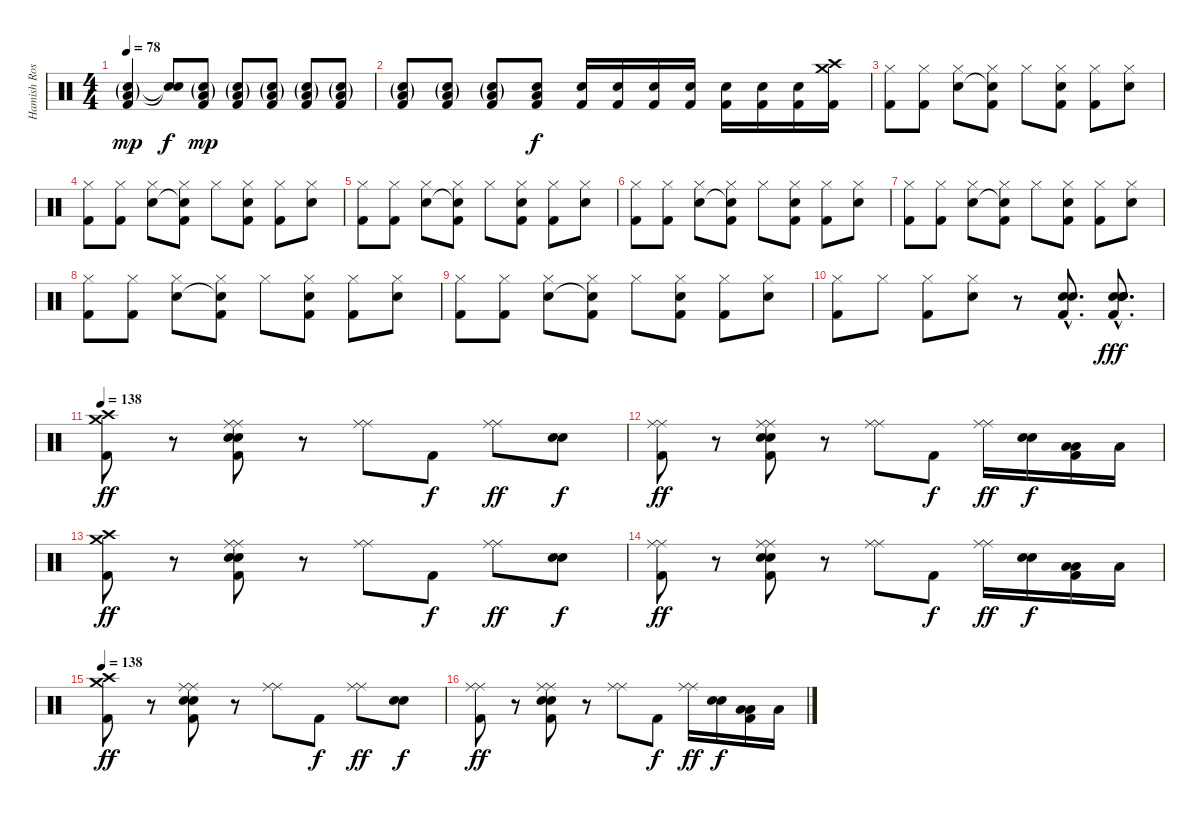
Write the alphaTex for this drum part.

\track ("Hamish Rosser" "Hamish Ros") {instrument percussion}
\staff {score}
\articulation defaults
\ts (4 4)
\tempo 78
\clef neutral
\ks c
("Low Tom (hit)"{g} "Snare (hit) 2"{g} "Kick (hit) 2").4{dy mp volume 14} ("Snare (hit)"{t} "Snare (hit)"{t}).8{dy f volume 12} ("Low Tom (hit)"{g} "Snare (hit) 2"{g} "Kick (hit) 2").8{dy mp volume 12} ("Low Tom (hit)"{g} "Snare (hit) 2"{g} "Kick (hit) 2").8{volume 13} ("Low Tom (hit)"{g} "Snare (hit) 2"{g} "Kick (hit) 2").8{volume 14} ("Low Tom (hit)"{g} "Snare (hit) 2"{g} "Kick (hit) 2").8{volume 15} ("Low Tom (hit)"{g} "Snare (hit) 2"{g} "Kick (hit) 2").8{volume 16} |
("Low Tom (hit)"{g} "Snare (hit) 2"{g} "Kick (hit) 2").8 ("Low Tom (hit)"{g} "Snare (hit) 2"{g} "Kick (hit) 2").8 ("Low Tom (hit)"{g} "Snare (hit) 2"{g} "Kick (hit) 2").8 ("Low Tom (hit)" "Snare (hit) 2" "Kick (hit) 2").8{dy f} ("Snare (hit) 2" "Kick (hit) 2").16 ("Snare (hit) 2" "Kick (hit) 2").16 ("Snare (hit) 2" "Kick (hit) 2").16 ("Snare (hit) 2" "Kick (hit) 2").16 ("Snare (hit) 2" "Kick (hit) 2").16 ("Snare (hit) 2" "Kick (hit) 2").16 ("Snare (hit) 2" "Kick (hit) 2").16 ("Crash medium (hit)" "Crash high (hit)" "Kick (hit) 2").16 |
("Hi-Hat (closed)" "Kick (hit) 2").8 ("Hi-Hat (closed)" "Kick (hit) 2").8 ("Hi-Hat (closed)" "Snare (hit) 2").8 ("Hi-Hat (closed)" "Snare (hit)"{t} "Kick (hit) 2").8 "Hi-Hat (closed)".8 ("Hi-Hat (closed)" "Snare (hit) 2" "Kick (hit) 2").8 ("Hi-Hat (closed)" "Kick (hit) 2").8 ("Hi-Hat (closed)" "Snare (hit) 2").8 |
("Hi-Hat (closed)" "Kick (hit) 2").8 ("Hi-Hat (closed)" "Kick (hit) 2").8 ("Hi-Hat (closed)" "Snare (hit) 2").8 ("Hi-Hat (closed)" "Snare (hit)"{t} "Kick (hit) 2").8 "Hi-Hat (closed)".8 ("Hi-Hat (closed)" "Snare (hit) 2" "Kick (hit) 2").8 ("Hi-Hat (closed)" "Kick (hit) 2").8 ("Hi-Hat (closed)" "Snare (hit) 2").8 |
("Hi-Hat (closed)" "Kick (hit) 2").8 ("Hi-Hat (closed)" "Kick (hit) 2").8 ("Hi-Hat (closed)" "Snare (hit) 2").8 ("Hi-Hat (closed)" "Snare (hit)"{t} "Kick (hit) 2").8 "Hi-Hat (closed)".8 ("Hi-Hat (closed)" "Snare (hit) 2" "Kick (hit) 2").8 ("Hi-Hat (closed)" "Kick (hit) 2").8 ("Hi-Hat (closed)" "Snare (hit) 2").8 |
("Hi-Hat (closed)" "Kick (hit) 2").8 ("Hi-Hat (closed)" "Kick (hit) 2").8 ("Hi-Hat (closed)" "Snare (hit) 2").8 ("Hi-Hat (closed)" "Snare (hit)"{t} "Kick (hit) 2").8 "Hi-Hat (closed)".8 ("Hi-Hat (closed)" "Snare (hit) 2" "Kick (hit) 2").8 ("Hi-Hat (closed)" "Kick (hit) 2").8 ("Hi-Hat (closed)" "Snare (hit) 2").8 |
("Hi-Hat (closed)" "Kick (hit) 2").8 ("Hi-Hat (closed)" "Kick (hit) 2").8 ("Hi-Hat (closed)" "Snare (hit) 2").8 ("Hi-Hat (closed)" "Snare (hit)"{t} "Kick (hit) 2").8 "Hi-Hat (closed)".8 ("Hi-Hat (closed)" "Snare (hit) 2" "Kick (hit) 2").8 ("Hi-Hat (closed)" "Kick (hit) 2").8 ("Hi-Hat (closed)" "Snare (hit) 2").8 |
("Hi-Hat (closed)" "Kick (hit) 2").8 ("Hi-Hat (closed)" "Kick (hit) 2").8 ("Hi-Hat (closed)" "Snare (hit) 2").8 ("Hi-Hat (closed)" "Snare (hit)"{t} "Kick (hit) 2").8 "Hi-Hat (closed)".8 ("Hi-Hat (closed)" "Snare (hit) 2" "Kick (hit) 2").8 ("Hi-Hat (closed)" "Kick (hit) 2").8 ("Hi-Hat (closed)" "Snare (hit) 2").8 |
("Hi-Hat (closed)" "Kick (hit) 2").8 ("Hi-Hat (closed)" "Kick (hit) 2").8 ("Hi-Hat (closed)" "Snare (hit) 2").8 ("Hi-Hat (closed)" "Snare (hit)"{t} "Kick (hit) 2").8 "Hi-Hat (closed)".8 ("Hi-Hat (closed)" "Snare (hit) 2" "Kick (hit) 2").8 ("Hi-Hat (closed)" "Kick (hit) 2").8 ("Hi-Hat (closed)" "Snare (hit) 2").8 |
("Hi-Hat (closed)" "Kick (hit) 2").8 "Hi-Hat (closed)".8 ("Hi-Hat (closed)" "Kick (hit) 2").8 ("Hi-Hat (closed)" "Snare (hit) 2").8 r.8 ("Snare (hit) 2"{hac} "Snare (hit) 2"{hac} "Kick (hit) 2"{hac}).8{d} ("Snare (hit) 2"{hac} "Snare (hit) 2"{hac} "Snare (hit) 2"{hac} "Snare (hit) 2"{hac} "Kick (hit) 2"{hac}).8{d dy fff} |
\tempo 138
("Crash high (hit)" "Crash medium (hit)" "Kick (hit) 2").8{dy ff} r.8 ("Ride (middle)" "Ride (middle)" "Snare (hit) 2" "Snare (hit) 2" "Kick (hit) 2").8 r.8 ("Ride (middle)" "Ride (middle)").8 "Kick (hit) 2".8{dy f} ("Ride (middle)" "Ride (middle)").8{dy ff} ("Snare (hit) 2" "Snare (hit) 2").8{dy f} |
("Ride (middle)" "Ride (middle)" "Kick (hit) 2").8{dy ff} r.8 ("Ride (middle)" "Ride (middle)" "Snare (hit) 2" "Snare (hit) 2" "Kick (hit) 2").8 r.8 ("Ride (middle)" "Ride (middle)").8 "Kick (hit) 2".8{dy f} ("Ride (middle)" "Ride (middle)").16{dy ff} ("Snare (hit) 2" "Snare (hit) 2").16{dy f} ("Low Tom (hit)" "Low Tom (hit)" "Kick (hit) 2").16 "Low Tom (hit)".16 |
("Crash high (hit)" "Crash medium (hit)" "Kick (hit) 2").8{dy ff} r.8 ("Ride (middle)" "Ride (middle)" "Snare (hit) 2" "Snare (hit) 2" "Kick (hit) 2").8 r.8 ("Ride (middle)" "Ride (middle)").8 "Kick (hit) 2".8{dy f} ("Ride (middle)" "Ride (middle)").8{dy ff} ("Snare (hit) 2" "Snare (hit) 2").8{dy f} |
("Ride (middle)" "Ride (middle)" "Kick (hit) 2").8{dy ff} r.8 ("Ride (middle)" "Ride (middle)" "Snare (hit) 2" "Snare (hit) 2" "Kick (hit) 2").8 r.8 ("Ride (middle)" "Ride (middle)").8 "Kick (hit) 2".8{dy f} ("Ride (middle)" "Ride (middle)").16{dy ff} ("Snare (hit) 2" "Snare (hit) 2").16{dy f} ("Low Tom (hit)" "Low Tom (hit)" "Kick (hit) 2").16 "Low Tom (hit)".16 |
\tempo 138
("Crash high (hit)" "Crash medium (hit)" "Kick (hit) 2").8{dy ff} r.8 ("Ride (middle)" "Ride (middle)" "Snare (hit) 2" "Snare (hit) 2" "Kick (hit) 2").8 r.8 ("Ride (middle)" "Ride (middle)").8 "Kick (hit) 2".8{dy f} ("Ride (middle)" "Ride (middle)").8{dy ff} ("Snare (hit) 2" "Snare (hit) 2").8{dy f} |
("Ride (middle)" "Ride (middle)" "Kick (hit) 2").8{dy ff} r.8 ("Ride (middle)" "Ride (middle)" "Snare (hit) 2" "Snare (hit) 2" "Kick (hit) 2").8 r.8 ("Ride (middle)" "Ride (middle)").8 "Kick (hit) 2".8{dy f} ("Ride (middle)" "Ride (middle)").16{dy ff} ("Snare (hit) 2" "Snare (hit) 2").16{dy f} ("Low Tom (hit)" "Low Tom (hit)" "Kick (hit) 2").16 "Low Tom (hit)".16
